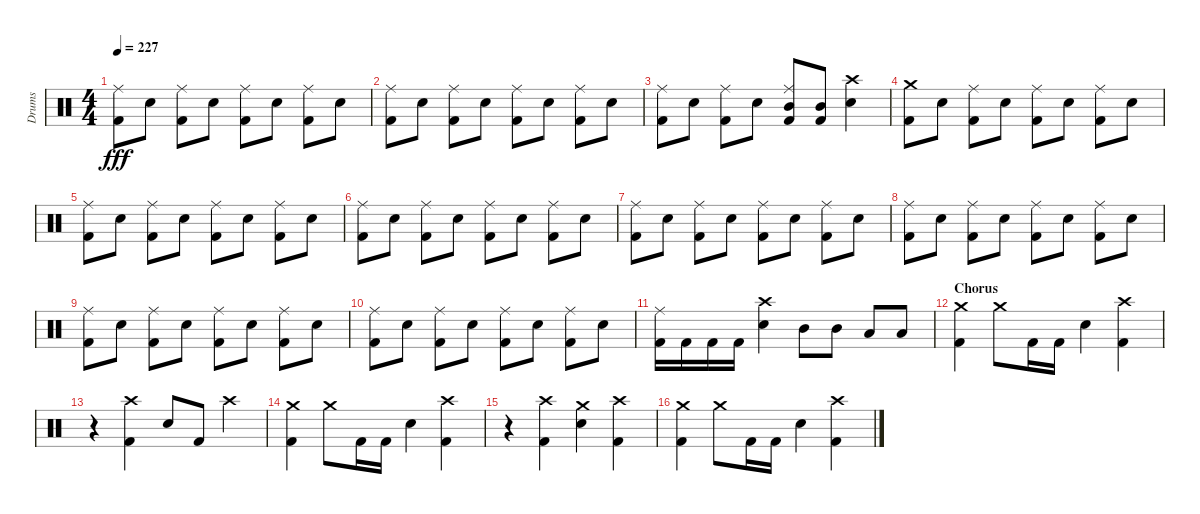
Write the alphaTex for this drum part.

\track ("Drums" "Drums") {instrument percussion}
\staff {score}
\articulation defaults
\ts (4 4)
\tempo 227
\clef neutral
\ks c
("Kick (hit) 2" "Ride (middle)").8{dy fff} "Electric Snare (hit)".8 ("Kick (hit) 2" "Ride (middle)").8 "Electric Snare (hit)".8 ("Kick (hit) 2" "Ride (middle)").8 "Electric Snare (hit)".8 ("Kick (hit) 2" "Ride (middle)").8 "Electric Snare (hit)".8 |
("Kick (hit) 2" "Ride (middle)").8 "Electric Snare (hit)".8 ("Kick (hit) 2" "Ride (middle)").8 "Electric Snare (hit)".8 ("Kick (hit) 2" "Ride (middle)").8 "Electric Snare (hit)".8 ("Kick (hit) 2" "Ride (middle)").8 "Electric Snare (hit)".8 |
("Kick (hit) 2" "Ride (middle)").8 "Electric Snare (hit)".8 ("Kick (hit) 2" "Ride (middle)").8 "Electric Snare (hit)".8 ("Kick (hit) 2" "Mid Tom (hit)" "Ride (middle)").8 ("Kick (hit) 2" "Mid Tom (hit)").8 ("Electric Snare (hit)" "Crash high (hit)").4 |
("Kick (hit) 2" "Crash medium (hit)").8 "Electric Snare (hit)".8 ("Kick (hit) 2" "Ride (middle)").8 "Electric Snare (hit)".8 ("Kick (hit) 2" "Ride (middle)").8 "Electric Snare (hit)".8 ("Kick (hit) 2" "Ride (middle)").8 "Electric Snare (hit)".8 |
("Kick (hit) 2" "Ride (middle)").8 "Electric Snare (hit)".8 ("Kick (hit) 2" "Ride (middle)").8 "Electric Snare (hit)".8 ("Kick (hit) 2" "Ride (middle)").8 "Electric Snare (hit)".8 ("Kick (hit) 2" "Ride (middle)").8 "Electric Snare (hit)".8 |
("Kick (hit) 2" "Ride (middle)").8 "Electric Snare (hit)".8 ("Kick (hit) 2" "Ride (middle)").8 "Electric Snare (hit)".8 ("Kick (hit) 2" "Ride (middle)").8 "Electric Snare (hit)".8 ("Kick (hit) 2" "Ride (middle)").8 "Electric Snare (hit)".8 |
("Kick (hit) 2" "Ride (middle)").8 "Electric Snare (hit)".8 ("Kick (hit) 2" "Ride (middle)").8 "Electric Snare (hit)".8 ("Kick (hit) 2" "Ride (middle)").8 "Electric Snare (hit)".8 ("Kick (hit) 2" "Ride (middle)").8 "Electric Snare (hit)".8 |
("Kick (hit) 2" "Ride (middle)").8 "Electric Snare (hit)".8 ("Kick (hit) 2" "Ride (middle)").8 "Electric Snare (hit)".8 ("Kick (hit) 2" "Ride (middle)").8 "Electric Snare (hit)".8 ("Kick (hit) 2" "Ride (middle)").8 "Electric Snare (hit)".8 |
("Kick (hit) 2" "Ride (middle)").8 "Electric Snare (hit)".8 ("Kick (hit) 2" "Ride (middle)").8 "Electric Snare (hit)".8 ("Kick (hit) 2" "Ride (middle)").8 "Electric Snare (hit)".8 ("Kick (hit) 2" "Ride (middle)").8 "Electric Snare (hit)".8 |
("Kick (hit) 2" "Ride (middle)").8 "Electric Snare (hit)".8 ("Kick (hit) 2" "Ride (middle)").8 "Electric Snare (hit)".8 ("Kick (hit) 2" "Ride (middle)").8 "Electric Snare (hit)".8 ("Kick (hit) 2" "Ride (middle)").8 "Electric Snare (hit)".8 |
("Kick (hit) 2" "Ride (middle)").16 "Kick (hit) 2".16 "Kick (hit) 2".16 "Kick (hit) 2".16 ("Electric Snare (hit)" "Crash high (hit)").4 "Mid Tom (hit)".8 "Mid Tom (hit)".8 "Low Tom (hit)".8 "Low Tom (hit)".8 |
\section ("" "Chorus")
("Kick (hit) 2" "Crash medium (hit)").4 "Crash medium (hit)".8 "Kick (hit) 2".16 "Kick (hit) 2".16 "Electric Snare (hit)".4 ("Kick (hit) 2" "Crash high (hit)").4 |
r.4 ("Kick (hit) 2" "Crash high (hit)").4 "Electric Snare (hit)".8 "Kick (hit) 2".8 "Crash high (hit)".4 |
("Kick (hit) 2" "Crash medium (hit)").4 "Crash medium (hit)".8 "Kick (hit) 2".16 "Kick (hit) 2".16 "Electric Snare (hit)".4 ("Kick (hit) 2" "Crash high (hit)").4 |
r.4 ("Kick (hit) 2" "Crash high (hit)").4 ("Electric Snare (hit)" "Crash medium (hit)").4 ("Kick (hit) 2" "Crash high (hit)").4 |
("Kick (hit) 2" "Crash medium (hit)").4 "Crash medium (hit)".8 "Kick (hit) 2".16 "Kick (hit) 2".16 "Electric Snare (hit)".4 ("Kick (hit) 2" "Crash high (hit)").4
